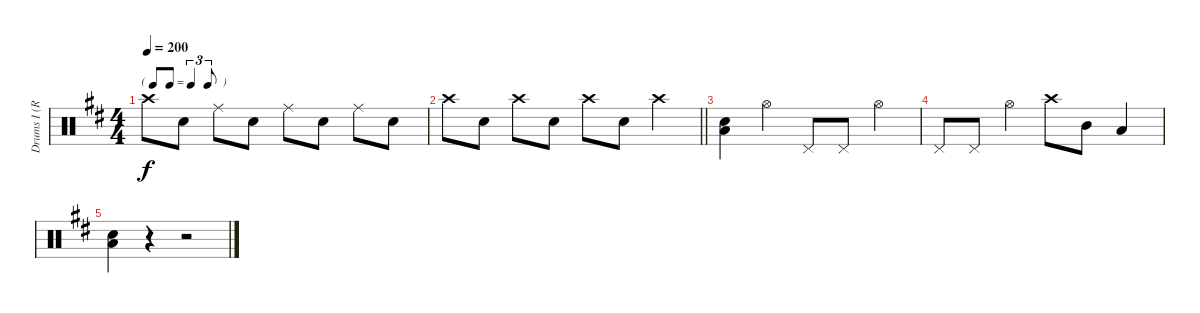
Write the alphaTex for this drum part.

\track ("Drums I (Ruka)" "Drums I (R") {instrument percussion}
\staff {score}
\articulation defaults
\ts (4 4)
\tf triplet8th
\tempo 200
\clef neutral
\ks d "Crash high (hit)".8{dy f} "Snare (hit) 2".8 "Ride (middle)".8 "Snare (hit) 2".8 "Ride (middle)".8 "Snare (hit) 2".8 "Ride (middle)".8 "Snare (hit) 2".8
|
\barLineRight lightlight "Crash high (hit)".8 "Snare (hit) 2".8 "Crash high (hit)".8 "Snare (hit) 2".8 "Crash high (hit)".8 "Snare (hit) 2".8 "Crash high (hit)".4
|
("Snare (hit) 2" "Low Tom (hit)").4 "Hi-Hat (open)".4 "Pedal Hi-Hat (hit)".8 "Pedal Hi-Hat (hit)".8 "Hi-Hat (open)".4 |
"Pedal Hi-Hat (hit)".8 "Pedal Hi-Hat (hit)".8 "Hi-Hat (open)".4 "Crash high (hit)".8 "Mid Tom (hit)".8 "Low Tom (hit)".4 |
("Snare (hit) 2" "Low Tom (hit)").4 r.4 r.2
